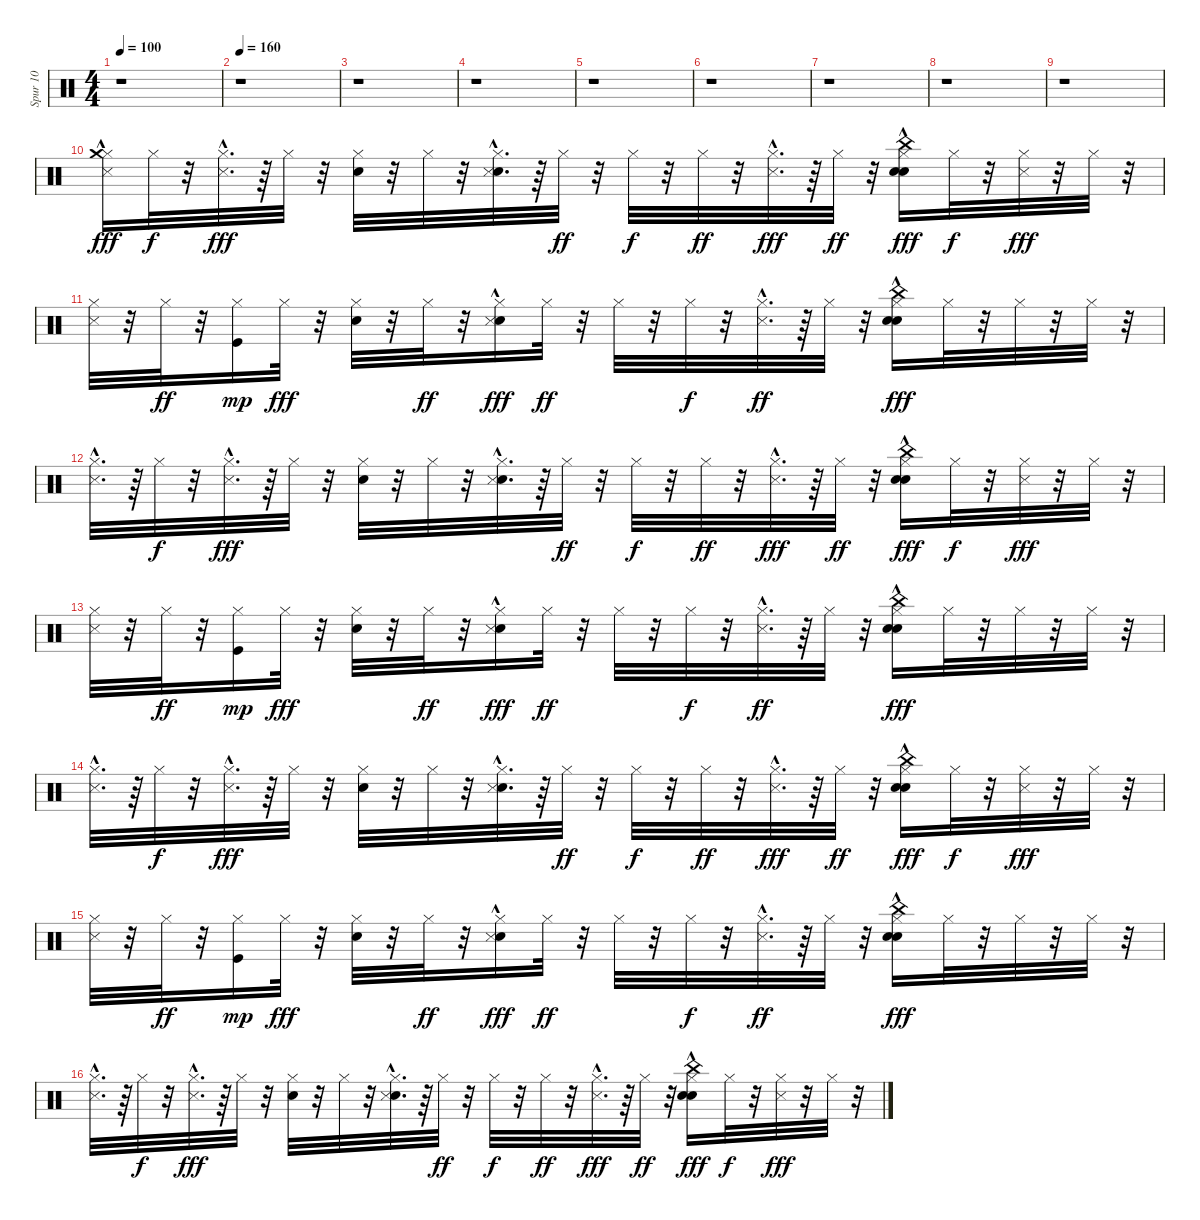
\track ("Spur 10" "Spur 10") {instrument percussion}
\staff {score}
\articulation defaults
\ts (4 4)
\tempo 100
\clef neutral
\ks c
r.1{dy fff} |
\tempo 160
r.1 |
r.1 |
r.1 |
r.1 |
r.1 |
r.1 |
r.1 |
r.1 |
("Hi-Hat (closed)" "Metronome (hit)"{hac} "Crash medium (hit)").16 "Hi-Hat (closed)".32{dy f} r.32 ("Hi-Hat (closed)" "Metronome (hit)"{hac}).32{d dy fff} r.64 "Hi-Hat (closed)".32 r.32 ("Hi-Hat (closed)" "Snare (hit) 2").32 r.32 "Hi-Hat (closed)".32 r.32 ("Hi-Hat (closed)" "Snare (hit) 2"{hac} "Metronome (hit)"{hac}).32{d} r.64 "Hi-Hat (closed)".32{dy ff} r.32 "Hi-Hat (closed)".32{dy f} r.32 "Hi-Hat (closed)".32{dy ff} r.32 ("Hi-Hat (closed)" "Metronome (hit)"{hac}).32{d dy fff} r.64 "Hi-Hat (closed)".32{dy ff} r.32 ("Hi-Hat (closed)" "Snare (hit) 2"{hac} "China (hit)" "Hand Clap (hit)").16{dy fff} "Hi-Hat (closed)".32{dy f} r.32 ("Hi-Hat (closed)" "Metronome (hit)").32{dy fff} r.32 "Hi-Hat (closed)".32 r.32 |
("Hi-Hat (closed)" "Metronome (hit)").32 r.32 "Hi-Hat (closed)".32{dy ff} r.32 ("Hi-Hat (closed)" "Kick (hit)").16{dy mp} "Hi-Hat (closed)".32{dy fff} r.32 ("Hi-Hat (closed)" "Snare (hit) 2").32 r.32 "Hi-Hat (closed)".32{dy ff} r.32 ("Hi-Hat (closed)" "Snare (hit) 2" "Metronome (hit)"{hac}).16{dy fff} "Hi-Hat (closed)".32{dy ff} r.32 "Hi-Hat (closed)".32 r.32 "Hi-Hat (closed)".32{dy f} r.32 ("Hi-Hat (closed)" "Metronome (hit)"{hac}).32{d dy ff} r.64 "Hi-Hat (closed)".32 r.32 ("Hi-Hat (closed)" "Snare (hit) 2"{hac} "China (hit)" "Hand Clap (hit)").16{dy fff} "Hi-Hat (closed)".32 r.32 "Hi-Hat (closed)".32 r.32 "Hi-Hat (closed)".32 r.32 |
("Hi-Hat (closed)" "Metronome (hit)"{hac}).32{d} r.64 "Hi-Hat (closed)".32{dy f} r.32 ("Hi-Hat (closed)" "Metronome (hit)"{hac}).32{d dy fff} r.64 "Hi-Hat (closed)".32 r.32 ("Hi-Hat (closed)" "Snare (hit) 2").32 r.32 "Hi-Hat (closed)".32 r.32 ("Hi-Hat (closed)" "Snare (hit) 2"{hac} "Metronome (hit)"{hac}).32{d} r.64 "Hi-Hat (closed)".32{dy ff} r.32 "Hi-Hat (closed)".32{dy f} r.32 "Hi-Hat (closed)".32{dy ff} r.32 ("Hi-Hat (closed)" "Metronome (hit)"{hac}).32{d dy fff} r.64 "Hi-Hat (closed)".32{dy ff} r.32 ("Hi-Hat (closed)" "Snare (hit) 2"{hac} "China (hit)" "Hand Clap (hit)").16{dy fff} "Hi-Hat (closed)".32{dy f} r.32 ("Hi-Hat (closed)" "Metronome (hit)").32{dy fff} r.32 "Hi-Hat (closed)".32 r.32 |
("Hi-Hat (closed)" "Metronome (hit)").32 r.32 "Hi-Hat (closed)".32{dy ff} r.32 ("Hi-Hat (closed)" "Kick (hit)").16{dy mp} "Hi-Hat (closed)".32{dy fff} r.32 ("Hi-Hat (closed)" "Snare (hit) 2").32 r.32 "Hi-Hat (closed)".32{dy ff} r.32 ("Hi-Hat (closed)" "Snare (hit) 2" "Metronome (hit)"{hac}).16{dy fff} "Hi-Hat (closed)".32{dy ff} r.32 "Hi-Hat (closed)".32 r.32 "Hi-Hat (closed)".32{dy f} r.32 ("Hi-Hat (closed)" "Metronome (hit)"{hac}).32{d dy ff} r.64 "Hi-Hat (closed)".32 r.32 ("Hi-Hat (closed)" "Snare (hit) 2"{hac} "China (hit)" "Hand Clap (hit)").16{dy fff} "Hi-Hat (closed)".32 r.32 "Hi-Hat (closed)".32 r.32 "Hi-Hat (closed)".32 r.32 |
("Hi-Hat (closed)" "Metronome (hit)"{hac}).32{d} r.64 "Hi-Hat (closed)".32{dy f} r.32 ("Hi-Hat (closed)" "Metronome (hit)"{hac}).32{d dy fff} r.64 "Hi-Hat (closed)".32 r.32 ("Hi-Hat (closed)" "Snare (hit) 2").32 r.32 "Hi-Hat (closed)".32 r.32 ("Hi-Hat (closed)" "Snare (hit) 2"{hac} "Metronome (hit)"{hac}).32{d} r.64 "Hi-Hat (closed)".32{dy ff} r.32 "Hi-Hat (closed)".32{dy f} r.32 "Hi-Hat (closed)".32{dy ff} r.32 ("Hi-Hat (closed)" "Metronome (hit)"{hac}).32{d dy fff} r.64 "Hi-Hat (closed)".32{dy ff} r.32 ("Hi-Hat (closed)" "Snare (hit) 2"{hac} "China (hit)" "Hand Clap (hit)").16{dy fff} "Hi-Hat (closed)".32{dy f} r.32 ("Hi-Hat (closed)" "Metronome (hit)").32{dy fff} r.32 "Hi-Hat (closed)".32 r.32 |
("Hi-Hat (closed)" "Metronome (hit)").32 r.32 "Hi-Hat (closed)".32{dy ff} r.32 ("Hi-Hat (closed)" "Kick (hit)").16{dy mp} "Hi-Hat (closed)".32{dy fff} r.32 ("Hi-Hat (closed)" "Snare (hit) 2").32 r.32 "Hi-Hat (closed)".32{dy ff} r.32 ("Hi-Hat (closed)" "Snare (hit) 2" "Metronome (hit)"{hac}).16{dy fff} "Hi-Hat (closed)".32{dy ff} r.32 "Hi-Hat (closed)".32 r.32 "Hi-Hat (closed)".32{dy f} r.32 ("Hi-Hat (closed)" "Metronome (hit)"{hac}).32{d dy ff} r.64 "Hi-Hat (closed)".32 r.32 ("Hi-Hat (closed)" "Snare (hit) 2"{hac} "China (hit)" "Hand Clap (hit)").16{dy fff} "Hi-Hat (closed)".32 r.32 "Hi-Hat (closed)".32 r.32 "Hi-Hat (closed)".32 r.32 |
("Hi-Hat (closed)" "Metronome (hit)"{hac}).32{d} r.64 "Hi-Hat (closed)".32{dy f} r.32 ("Hi-Hat (closed)" "Metronome (hit)"{hac}).32{d dy fff} r.64 "Hi-Hat (closed)".32 r.32 ("Hi-Hat (closed)" "Snare (hit) 2").32 r.32 "Hi-Hat (closed)".32 r.32 ("Hi-Hat (closed)" "Snare (hit) 2"{hac} "Metronome (hit)"{hac}).32{d} r.64 "Hi-Hat (closed)".32{dy ff} r.32 "Hi-Hat (closed)".32{dy f} r.32 "Hi-Hat (closed)".32{dy ff} r.32 ("Hi-Hat (closed)" "Metronome (hit)"{hac}).32{d dy fff} r.64 "Hi-Hat (closed)".32{dy ff} r.32 ("Hi-Hat (closed)" "Snare (hit) 2"{hac} "China (hit)" "Hand Clap (hit)").16{dy fff} "Hi-Hat (closed)".32{dy f} r.32 ("Hi-Hat (closed)" "Metronome (hit)").32{dy fff} r.32 "Hi-Hat (closed)".32 r.32
